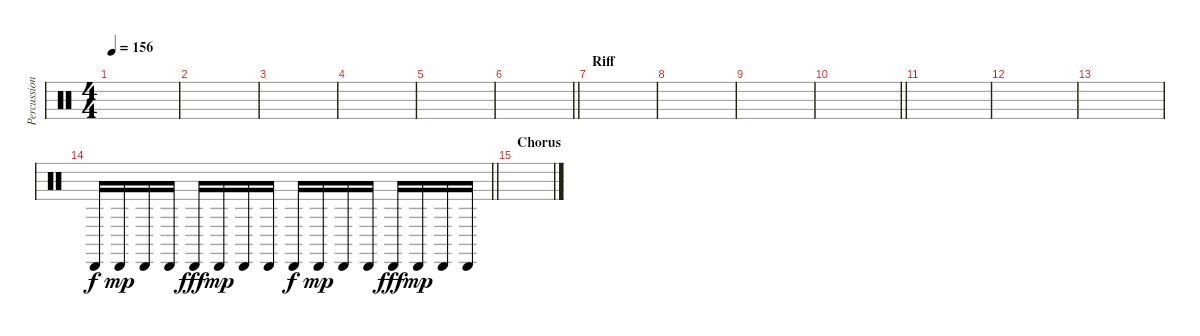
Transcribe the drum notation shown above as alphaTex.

\track ("Percussion" "Percussion") {instrument percussion}
\staff {score}
\articulation defaults
\ts (4 4)
\tempo 156
\clef neutral
\ks c
|
|
|
|
|
\barLineRight lightlight
|
\section ("" "Riff")
|
|
|
\barLineRight lightlight
|
|
|
|
\barLineRight lightlight "Cabasa (hit)".16{dy f balance 8} "Cabasa (hit)".16{dy mp} "Cabasa (hit)".16 "Cabasa (hit)".16 "Cabasa (hit)".16{dy fff} "Cabasa (hit)".16{dy mp} "Cabasa (hit)".16 "Cabasa (hit)".16 "Cabasa (hit)".16{dy f} "Cabasa (hit)".16{dy mp} "Cabasa (hit)".16 "Cabasa (hit)".16 "Cabasa (hit)".16{dy fff} "Cabasa (hit)".16{dy mp} "Cabasa (hit)".16 "Cabasa (hit)".16
|
\section ("" "Chorus")
